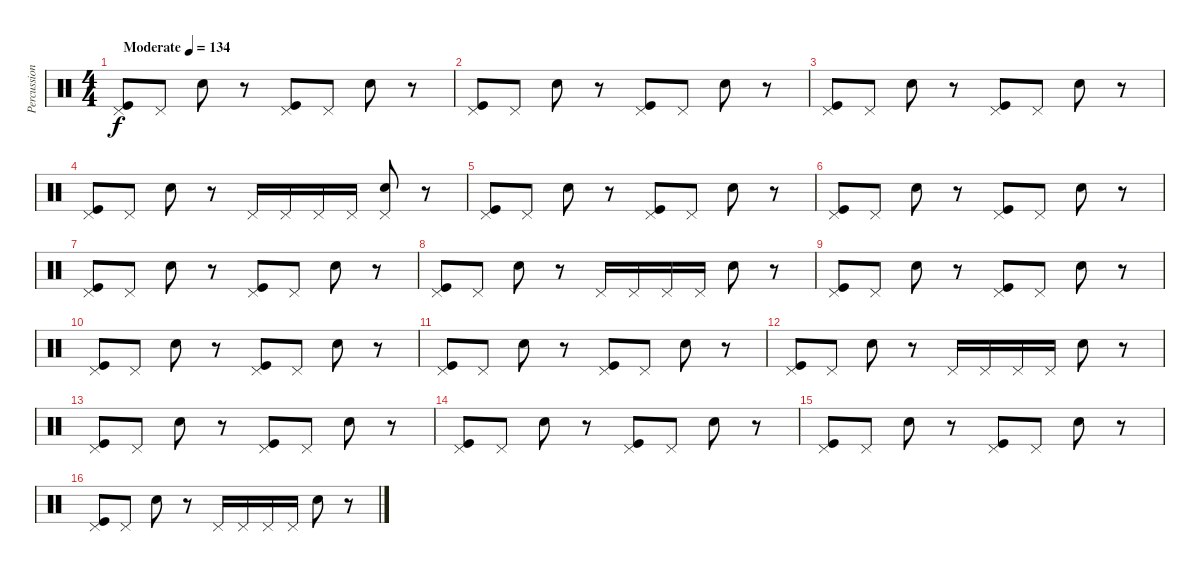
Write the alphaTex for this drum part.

\track ("Percussion" "Percussion") {instrument percussion}
\staff {score}
\articulation defaults
\ts (4 4)
\tempo (134 "Moderate")
\clef neutral
\ks c
("Pedal Hi-Hat (hit)" "Kick (hit)").8{dy f} "Pedal Hi-Hat (hit)".8 "Electric Snare (hit)".8 r.8 ("Pedal Hi-Hat (hit)" "Kick (hit)").8 "Pedal Hi-Hat (hit)".8 "Electric Snare (hit)".8 r.8 |
("Pedal Hi-Hat (hit)" "Kick (hit)").8 "Pedal Hi-Hat (hit)".8 "Electric Snare (hit)".8 r.8 ("Pedal Hi-Hat (hit)" "Kick (hit)").8 "Pedal Hi-Hat (hit)".8 "Electric Snare (hit)".8 r.8 |
("Pedal Hi-Hat (hit)" "Kick (hit)").8 "Pedal Hi-Hat (hit)".8 "Electric Snare (hit)".8 r.8 ("Pedal Hi-Hat (hit)" "Kick (hit)").8 "Pedal Hi-Hat (hit)".8 "Electric Snare (hit)".8 r.8 |
("Pedal Hi-Hat (hit)" "Kick (hit)").8 "Pedal Hi-Hat (hit)".8 "Electric Snare (hit)".8 r.8 "Pedal Hi-Hat (hit)".16 "Pedal Hi-Hat (hit)".16 "Pedal Hi-Hat (hit)".16 "Pedal Hi-Hat (hit)".16 ("Pedal Hi-Hat (hit)" "Electric Snare (hit)").8 r.8 |
("Pedal Hi-Hat (hit)" "Kick (hit)").8 "Pedal Hi-Hat (hit)".8 "Electric Snare (hit)".8 r.8 ("Pedal Hi-Hat (hit)" "Kick (hit)").8 "Pedal Hi-Hat (hit)".8 "Electric Snare (hit)".8 r.8 |
("Pedal Hi-Hat (hit)" "Kick (hit)").8 "Pedal Hi-Hat (hit)".8 "Electric Snare (hit)".8 r.8 ("Pedal Hi-Hat (hit)" "Kick (hit)").8 "Pedal Hi-Hat (hit)".8 "Electric Snare (hit)".8 r.8 |
("Pedal Hi-Hat (hit)" "Kick (hit)").8 "Pedal Hi-Hat (hit)".8 "Electric Snare (hit)".8 r.8 ("Pedal Hi-Hat (hit)" "Kick (hit)").8 "Pedal Hi-Hat (hit)".8 "Electric Snare (hit)".8 r.8 |
("Pedal Hi-Hat (hit)" "Kick (hit)").8 "Pedal Hi-Hat (hit)".8 "Electric Snare (hit)".8 r.8 "Pedal Hi-Hat (hit)".16 "Pedal Hi-Hat (hit)".16 "Pedal Hi-Hat (hit)".16 "Pedal Hi-Hat (hit)".16 "Electric Snare (hit)".8 r.8 |
("Pedal Hi-Hat (hit)" "Kick (hit)").8 "Pedal Hi-Hat (hit)".8 "Electric Snare (hit)".8 r.8 ("Pedal Hi-Hat (hit)" "Kick (hit)").8 "Pedal Hi-Hat (hit)".8 "Electric Snare (hit)".8 r.8 |
("Pedal Hi-Hat (hit)" "Kick (hit)").8 "Pedal Hi-Hat (hit)".8 "Electric Snare (hit)".8 r.8 ("Pedal Hi-Hat (hit)" "Kick (hit)").8 "Pedal Hi-Hat (hit)".8 "Electric Snare (hit)".8 r.8 |
("Pedal Hi-Hat (hit)" "Kick (hit)").8 "Pedal Hi-Hat (hit)".8 "Electric Snare (hit)".8 r.8 ("Pedal Hi-Hat (hit)" "Kick (hit)").8 "Pedal Hi-Hat (hit)".8 "Electric Snare (hit)".8 r.8 |
("Pedal Hi-Hat (hit)" "Kick (hit)").8 "Pedal Hi-Hat (hit)".8 "Electric Snare (hit)".8 r.8 "Pedal Hi-Hat (hit)".16 "Pedal Hi-Hat (hit)".16 "Pedal Hi-Hat (hit)".16 "Pedal Hi-Hat (hit)".16 "Electric Snare (hit)".8 r.8 |
("Pedal Hi-Hat (hit)" "Kick (hit)").8 "Pedal Hi-Hat (hit)".8 "Electric Snare (hit)".8 r.8 ("Pedal Hi-Hat (hit)" "Kick (hit)").8 "Pedal Hi-Hat (hit)".8 "Electric Snare (hit)".8 r.8 |
("Pedal Hi-Hat (hit)" "Kick (hit)").8 "Pedal Hi-Hat (hit)".8 "Electric Snare (hit)".8 r.8 ("Pedal Hi-Hat (hit)" "Kick (hit)").8 "Pedal Hi-Hat (hit)".8 "Electric Snare (hit)".8 r.8 |
("Pedal Hi-Hat (hit)" "Kick (hit)").8 "Pedal Hi-Hat (hit)".8 "Electric Snare (hit)".8 r.8 ("Pedal Hi-Hat (hit)" "Kick (hit)").8 "Pedal Hi-Hat (hit)".8 "Electric Snare (hit)".8 r.8 |
("Pedal Hi-Hat (hit)" "Kick (hit)").8 "Pedal Hi-Hat (hit)".8 "Electric Snare (hit)".8 r.8 "Pedal Hi-Hat (hit)".16 "Pedal Hi-Hat (hit)".16 "Pedal Hi-Hat (hit)".16 "Pedal Hi-Hat (hit)".16 "Electric Snare (hit)".8 r.8
